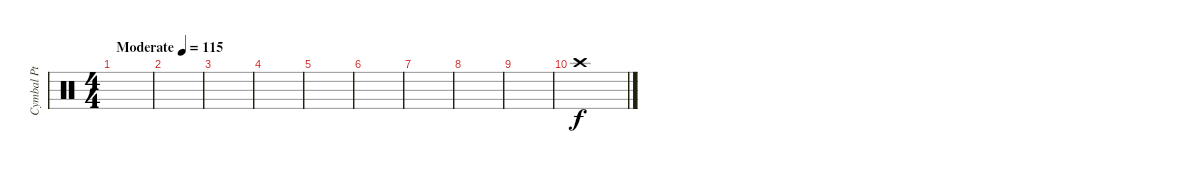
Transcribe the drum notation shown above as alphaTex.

\track ("Cymbal Pt 2" "Cymbal Pt ") {instrument percussion}
\staff {score}
\articulation defaults
\ts (4 4)
\tempo (115 "Moderate")
\clef neutral
\ks c
|
|
|
|
|
|
|
|
|
"Crash high (hit)".1
